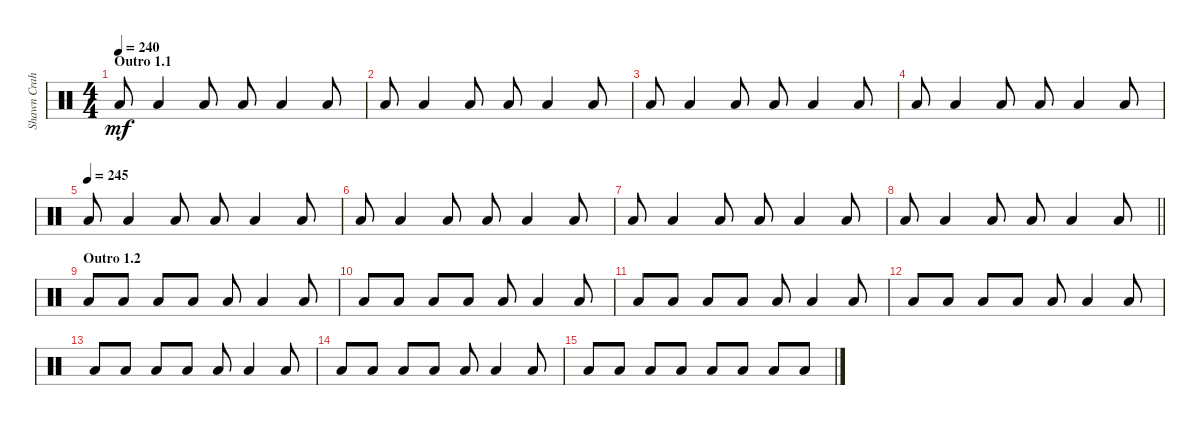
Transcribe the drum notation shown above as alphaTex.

\track ("Shawn Crahan" "Shawn Crah") {instrument percussion}
\staff {score}
\articulation defaults
\ts (4 4)
\section ("" "Outro 1.1")
\tempo 240
\clef neutral
\ks c "Low Floor Tom (hit)".8{dy mf} "Low Floor Tom (hit)".4 "Low Floor Tom (hit)".8 "Low Floor Tom (hit)".8 "Low Floor Tom (hit)".4 "Low Floor Tom (hit)".8
|
"Low Floor Tom (hit)".8 "Low Floor Tom (hit)".4 "Low Floor Tom (hit)".8 "Low Floor Tom (hit)".8 "Low Floor Tom (hit)".4 "Low Floor Tom (hit)".8 |
"Low Floor Tom (hit)".8 "Low Floor Tom (hit)".4 "Low Floor Tom (hit)".8 "Low Floor Tom (hit)".8 "Low Floor Tom (hit)".4 "Low Floor Tom (hit)".8 |
"Low Floor Tom (hit)".8 "Low Floor Tom (hit)".4 "Low Floor Tom (hit)".8 "Low Floor Tom (hit)".8 "Low Floor Tom (hit)".4 "Low Floor Tom (hit)".8 |
\tempo (245)
"Low Floor Tom (hit)".8 "Low Floor Tom (hit)".4 "Low Floor Tom (hit)".8 "Low Floor Tom (hit)".8 "Low Floor Tom (hit)".4 "Low Floor Tom (hit)".8 |
"Low Floor Tom (hit)".8 "Low Floor Tom (hit)".4 "Low Floor Tom (hit)".8 "Low Floor Tom (hit)".8 "Low Floor Tom (hit)".4 "Low Floor Tom (hit)".8 |
"Low Floor Tom (hit)".8 "Low Floor Tom (hit)".4 "Low Floor Tom (hit)".8 "Low Floor Tom (hit)".8 "Low Floor Tom (hit)".4 "Low Floor Tom (hit)".8 |
\barLineRight lightlight "Low Floor Tom (hit)".8 "Low Floor Tom (hit)".4 "Low Floor Tom (hit)".8 "Low Floor Tom (hit)".8 "Low Floor Tom (hit)".4 "Low Floor Tom (hit)".8
|
\section ("" "Outro 1.2")
"Low Floor Tom (hit)".8 "Low Floor Tom (hit)".8 "Low Floor Tom (hit)".8 "Low Floor Tom (hit)".8 "Low Floor Tom (hit)".8 "Low Floor Tom (hit)".4 "Low Floor Tom (hit)".8 |
"Low Floor Tom (hit)".8 "Low Floor Tom (hit)".8 "Low Floor Tom (hit)".8 "Low Floor Tom (hit)".8 "Low Floor Tom (hit)".8 "Low Floor Tom (hit)".4 "Low Floor Tom (hit)".8 |
"Low Floor Tom (hit)".8 "Low Floor Tom (hit)".8 "Low Floor Tom (hit)".8 "Low Floor Tom (hit)".8 "Low Floor Tom (hit)".8 "Low Floor Tom (hit)".4 "Low Floor Tom (hit)".8 |
"Low Floor Tom (hit)".8 "Low Floor Tom (hit)".8 "Low Floor Tom (hit)".8 "Low Floor Tom (hit)".8 "Low Floor Tom (hit)".8 "Low Floor Tom (hit)".4 "Low Floor Tom (hit)".8 |
"Low Floor Tom (hit)".8 "Low Floor Tom (hit)".8 "Low Floor Tom (hit)".8 "Low Floor Tom (hit)".8 "Low Floor Tom (hit)".8 "Low Floor Tom (hit)".4 "Low Floor Tom (hit)".8 |
"Low Floor Tom (hit)".8 "Low Floor Tom (hit)".8 "Low Floor Tom (hit)".8 "Low Floor Tom (hit)".8 "Low Floor Tom (hit)".8 "Low Floor Tom (hit)".4 "Low Floor Tom (hit)".8 |
"Low Floor Tom (hit)".8 "Low Floor Tom (hit)".8 "Low Floor Tom (hit)".8 "Low Floor Tom (hit)".8 "Low Floor Tom (hit)".8 "Low Floor Tom (hit)".8 "Low Floor Tom (hit)".8 "Low Floor Tom (hit)".8
